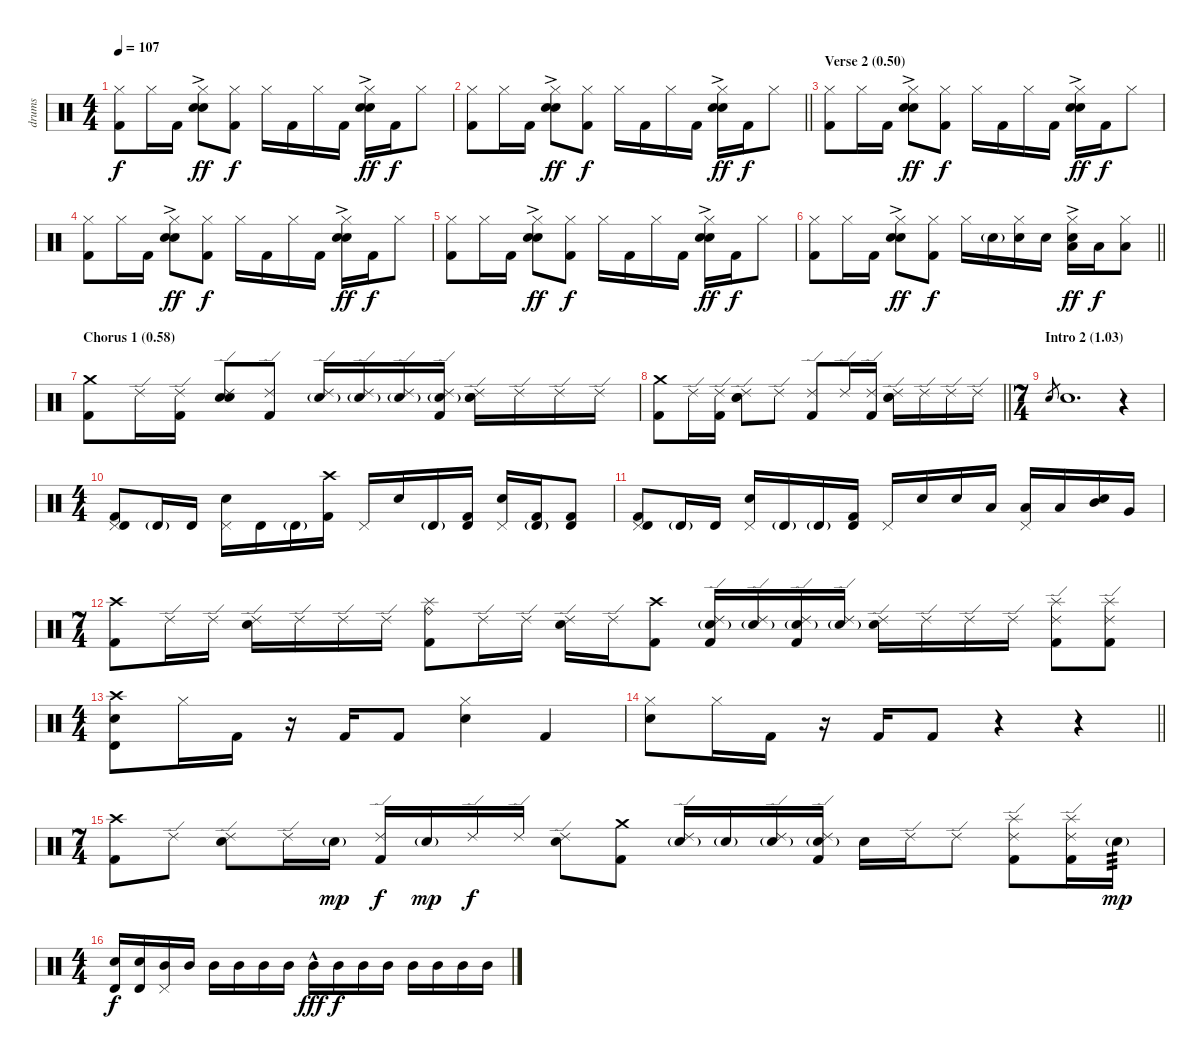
\track ("drums" "drums") {instrument percussion}
\staff {score}
\articulation defaults
\ts (4 4)
\tempo 107
\clef neutral
\ks c
("Hi-Hat (closed)" "Kick (hit) 2").8{dy f} "Hi-Hat (closed)".16 "Kick (hit) 2".16 ("Hi-Hat (closed)" "Hand Clap (hit)"{ac} "Electric Snare (hit)").8{dy ff} ("Hi-Hat (closed)" "Kick (hit) 2").8{dy f} "Hi-Hat (closed)".16 "Kick (hit) 2".16 "Hi-Hat (closed)".16 "Kick (hit) 2".16 ("Hi-Hat (closed)" "Hand Clap (hit)"{ac} "Electric Snare (hit)").16{dy ff} "Kick (hit) 2".16{dy f} "Hi-Hat (closed)".8 |
\barLineRight lightlight
("Hi-Hat (closed)" "Kick (hit) 2").8 "Hi-Hat (closed)".16 "Kick (hit) 2".16 ("Hi-Hat (closed)" "Hand Clap (hit)"{ac} "Electric Snare (hit)").8{dy ff} ("Hi-Hat (closed)" "Kick (hit) 2").8{dy f} "Hi-Hat (closed)".16 "Kick (hit) 2".16 "Hi-Hat (closed)".16 "Kick (hit) 2".16 ("Hi-Hat (closed)" "Hand Clap (hit)"{ac} "Electric Snare (hit)").16{dy ff} "Kick (hit) 2".16{dy f} "Hi-Hat (closed)".8 |
\section ("" "Verse 2 (0.50)")
("Hi-Hat (closed)" "Kick (hit) 2").8 "Hi-Hat (closed)".16 "Kick (hit) 2".16 ("Hi-Hat (closed)" "Hand Clap (hit)"{ac} "Electric Snare (hit)").8{dy ff} ("Hi-Hat (closed)" "Kick (hit) 2").8{dy f} "Hi-Hat (closed)".16 "Kick (hit) 2".16 "Hi-Hat (closed)".16 "Kick (hit) 2".16 ("Hi-Hat (closed)" "Hand Clap (hit)"{ac} "Electric Snare (hit)").16{dy ff} "Kick (hit) 2".16{dy f} "Hi-Hat (closed)".8 |
("Hi-Hat (closed)" "Kick (hit) 2").8 "Hi-Hat (closed)".16 "Kick (hit) 2".16 ("Hi-Hat (closed)" "Hand Clap (hit)"{ac} "Electric Snare (hit)").8{dy ff} ("Hi-Hat (closed)" "Kick (hit) 2").8{dy f} "Hi-Hat (closed)".16 "Kick (hit) 2".16 "Hi-Hat (closed)".16 "Kick (hit) 2".16 ("Hi-Hat (closed)" "Hand Clap (hit)"{ac} "Electric Snare (hit)").16{dy ff} "Kick (hit) 2".16{dy f} "Hi-Hat (closed)".8 |
("Hi-Hat (closed)" "Kick (hit) 2").8 "Hi-Hat (closed)".16 "Kick (hit) 2".16 ("Hi-Hat (closed)" "Hand Clap (hit)"{ac} "Electric Snare (hit)").8{dy ff} ("Hi-Hat (closed)" "Kick (hit) 2").8{dy f} "Hi-Hat (closed)".16 "Kick (hit) 2".16 "Hi-Hat (closed)".16 "Kick (hit) 2".16 ("Hi-Hat (closed)" "Hand Clap (hit)"{ac} "Electric Snare (hit)").16{dy ff} "Kick (hit) 2".16{dy f} "Hi-Hat (closed)".8 |
\barLineRight lightlight
("Hi-Hat (closed)" "Kick (hit) 2").8 "Hi-Hat (closed)".16 "Kick (hit) 2".16 ("Hi-Hat (closed)" "Hand Clap (hit)"{ac} "Electric Snare (hit)").8{dy ff} ("Hi-Hat (closed)" "Kick (hit) 2").8{dy f} "Hi-Hat (closed)".16 "Electric Snare (hit)"{g}.16 ("Hi-Hat (closed)" "Electric Snare (hit)").16 "Electric Snare (hit)".16 ("Hi-Hat (closed)" "Hand Clap (hit)"{ac} "Low Tom (hit)").16{dy ff} "Low Tom (hit)".16{dy f} ("Hi-Hat (closed)" "Low Tom (hit)").8 |
\section ("" "Chorus 1 (0.58)")
("Crash medium (hit)" "Kick (hit) 2").8 "Ride (edge) 2".16 ("Ride (edge) 2" "Kick (hit) 2").16 ("Ride (edge) 2" "Hand Clap (hit)" "Electric Snare (hit)").8 ("Ride (edge) 2" "Kick (hit) 2").8 ("Ride (edge) 2" "Electric Snare (hit)"{g}).16 ("Ride (edge) 2" "Electric Snare (hit)"{g}).16 ("Ride (edge) 2" "Electric Snare (hit)"{g}).16 ("Ride (edge) 2" "Electric Snare (hit)"{g} "Kick (hit) 2").16 ("Ride (edge) 2" "Hand Clap (hit)" "Electric Snare (hit)").16 "Ride (edge) 2".16 "Ride (edge) 2".16 "Ride (edge) 2".16 |
\barLineRight lightlight
("Crash medium (hit)" "Kick (hit) 2").8 "Ride (edge) 2".16 ("Ride (edge) 2" "Kick (hit) 2").16 ("Ride (edge) 2" "Hand Clap (hit)" "Electric Snare (hit)").8 "Ride (edge) 2".8 ("Ride (edge) 2" "Kick (hit) 2").8 "Ride (edge) 2".16 ("Ride (edge) 2" "Kick (hit) 2").16 ("Ride (edge) 2" "Hand Clap (hit)" "Electric Snare (hit)").16 "Ride (edge) 2".16 "Ride (edge) 2".16 "Ride (edge) 2".16 |
\ts (7 4)
\section ("" "Intro 2 (1.03)")
"Electric Snare (hit)".8{gr} "Electric Snare (hit)".1{d} r.4 |
\ts (4 4)
("Pedal Hi-Hat (hit)" "Timbale high (hit)" "Kick (hit) 2").8 "Timbale high (hit)"{g}.16 "Timbale high (hit)".16 ("Pedal Hi-Hat (hit)" "Electric Snare (hit)").16 "Timbale high (hit)".16 "Timbale high (hit)"{g}.16 ("Crash high (hit)" "Kick (hit) 2").16 "Pedal Hi-Hat (hit)".16 "Electric Snare (hit)".16 "Timbale high (hit)"{g}.16 ("Timbale high (hit)" "Kick (hit) 2").16 ("Pedal Hi-Hat (hit)" "Electric Snare (hit)").16 ("Timbale high (hit)"{g} "Kick (hit) 2").16 ("Timbale high (hit)" "Kick (hit) 2").8 |
("Pedal Hi-Hat (hit)" "Timbale high (hit)" "Kick (hit) 2").8 "Timbale high (hit)"{g}.16 "Timbale high (hit)".16 ("Pedal Hi-Hat (hit)" "Electric Snare (hit)").16 "Timbale high (hit)"{g}.16 "Timbale high (hit)"{g}.16 ("Timbale high (hit)" "Kick (hit) 2").16 "Pedal Hi-Hat (hit)".16 "Electric Snare (hit)".16 "Electric Snare (hit)".16 "Low Tom (hit)".16 ("Pedal Hi-Hat (hit)" "Low Tom (hit)").16 "Low Tom (hit)".16 ("Mid Tom (hit)" "Electric Snare (hit)").16 "Very Low Tom (hit)".16 |
\ts (7 4)
("Crash high (hit)" "Kick (hit) 2").8 "Ride (edge) 2".16 "Ride (edge) 2".16 ("Ride (edge) 2" "Electric Snare (hit)").16 "Ride (edge) 2".16 "Ride (edge) 2".16 "Ride (edge) 2".16 ("Ride (bell)" "Splash (hit)" "Kick (hit) 2").8 "Ride (edge) 2".16 "Ride (edge) 2".16 ("Ride (edge) 2" "Electric Snare (hit)").16 "Ride (edge) 2".16 ("Crash high (hit)" "Kick (hit) 2").8 ("Ride (edge) 2" "Electric Snare (hit)"{g} "Kick (hit) 2").16 ("Ride (edge) 2" "Electric Snare (hit)"{g}).16 ("Ride (edge) 2" "Electric Snare (hit)"{g} "Kick (hit) 2").16 ("Ride (edge) 2" "Electric Snare (hit)"{g}).16 ("Ride (edge) 2" "Electric Snare (hit)").16 "Ride (edge) 2".16 "Ride (edge) 2".16 "Ride (edge) 2".16 ("Ride (edge) 2" "Splash (hit)" "Kick (hit) 2").8 ("Ride (edge) 2" "Splash (hit)" "Kick (hit) 2").8 |
\ts (4 4)
("Timbale high (hit)" "Crash high (hit)" "Electric Snare (hit)").8 "Hi-Hat (closed)".16 "Kick (hit) 2".16 r.16 "Kick (hit) 2".16 "Kick (hit) 2".8 ("Hi-Hat (closed)" "Electric Snare (hit)").4 "Kick (hit) 2".4 |
\barLineRight lightlight
("Hi-Hat (closed)" "Electric Snare (hit)").8 "Hi-Hat (closed)".16 "Kick (hit) 2".16 r.16 "Kick (hit) 2".16 "Kick (hit) 2".8 r.4 r.4 |
\ts (7 4)
("Crash high (hit)" "Kick (hit) 2").8 "Ride (edge) 2".8 ("Ride (edge) 2" "Electric Snare (hit)").8 "Ride (edge) 2".16 "Electric Snare (hit)"{g}.16{dy mp} ("Ride (edge) 2" "Kick (hit) 2").16{dy f} "Electric Snare (hit)"{g}.16{dy mp} "Ride (edge) 2".16{dy f} "Ride (edge) 2".16 ("Ride (edge) 2" "Electric Snare (hit)").8 ("Crash medium (hit)" "Kick (hit) 2").8 ("Ride (edge) 2" "Electric Snare (hit)"{g}).16 "Electric Snare (hit)"{g}.16 ("Ride (edge) 2" "Electric Snare (hit)"{g}).16 ("Ride (edge) 2" "Electric Snare (hit)"{g} "Kick (hit) 2").16 "Electric Snare (hit)".16 "Ride (edge) 2".16 "Ride (edge) 2".8 ("Ride (edge) 2" "Splash (hit)" "Kick (hit) 2").8 ("Ride (edge) 2" "Splash (hit)" "Kick (hit) 2").16 "Electric Snare (hit)"{g}.16{tp 3 dy mp} |
\ts (4 4)
("Timbale high (hit)" "Electric Snare (hit)").16{dy f} ("Timbale high (hit)" "Electric Snare (hit)").16 ("Pedal Hi-Hat (hit)" "Mid Tom (hit)").16 "Mid Tom (hit)".16 "Mid Tom (hit)".16 "Mid Tom (hit)".16 "Mid Tom (hit)".16 "Mid Tom (hit)".16 "Mid Tom (hit)"{hac}.16{dy fff} "Mid Tom (hit)".16{dy f} "Mid Tom (hit)".16 "Mid Tom (hit)".16 "Mid Tom (hit)".16 "Mid Tom (hit)".16 "Mid Tom (hit)".16 "Mid Tom (hit)".16
